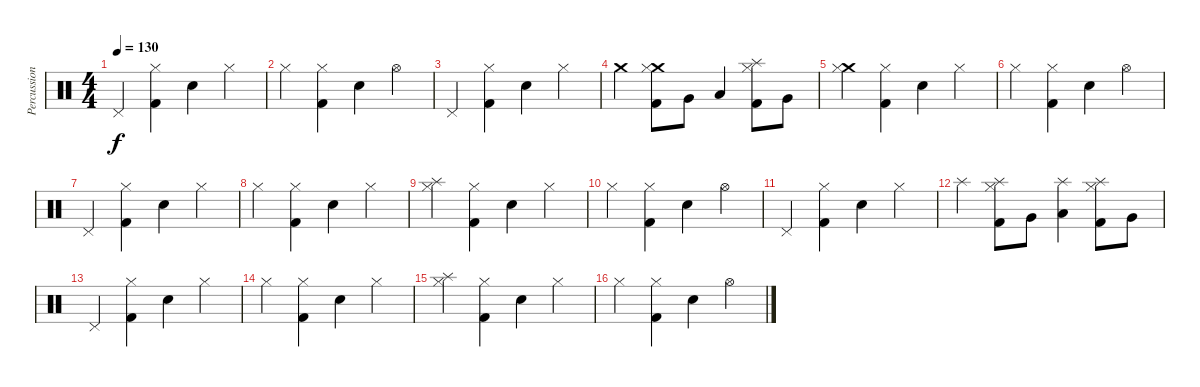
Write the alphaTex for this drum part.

\track ("Percussion" "Percussion") {instrument percussion}
\staff {score}
\articulation defaults
\ts (4 4)
\tempo 130
\clef neutral
\ks c "Pedal Hi-Hat (hit)".4{dy f}
("Hi-Hat (closed)" "Kick (hit) 2").4 "Snare (hit) 2".4 "Hi-Hat (closed)".4 |
"Hi-Hat (closed)".4 ("Hi-Hat (closed)" "Kick (hit) 2").4 "Snare (hit) 2".4 "Hi-Hat (open)".4 |
"Pedal Hi-Hat (hit)".4 ("Hi-Hat (closed)" "Kick (hit) 2").4 "Snare (hit) 2".4 "Hi-Hat (closed)".4 |
"Crash medium (hit)".4 ("Crash medium (hit)" "Hi-Hat (closed)" "Kick (hit) 2").8 "Very Low Tom (hit)".8 "Low Floor Tom (hit)".4 ("Splash (hit)" "Hi-Hat (closed)" "Kick (hit) 2").8 "Very Low Tom (hit)".8 |
("Crash medium (hit)" "Hi-Hat (closed)").4 ("Hi-Hat (closed)" "Kick (hit) 2").4 "Snare (hit) 2".4 "Hi-Hat (closed)".4 |
"Hi-Hat (closed)".4 ("Hi-Hat (closed)" "Kick (hit) 2").4 "Snare (hit) 2".4 "Hi-Hat (open)".4 |
"Pedal Hi-Hat (hit)".4 ("Hi-Hat (closed)" "Kick (hit) 2").4 "Snare (hit) 2".4 "Hi-Hat (closed)".4 |
"Hi-Hat (closed)".4 ("Hi-Hat (closed)" "Kick (hit) 2").4 "Snare (hit) 2".4 "Hi-Hat (closed)".4 |
("Splash (hit)" "Hi-Hat (closed)").4 ("Hi-Hat (closed)" "Kick (hit) 2").4 "Snare (hit) 2".4 "Hi-Hat (closed)".4 |
"Hi-Hat (closed)".4 ("Hi-Hat (closed)" "Kick (hit) 2").4 "Snare (hit) 2".4 "Hi-Hat (open)".4 |
"Pedal Hi-Hat (hit)".4 ("Hi-Hat (closed)" "Kick (hit) 2").4 "Snare (hit) 2".4 "Hi-Hat (closed)".4 |
"Splash (hit)".4 ("Splash (hit)" "Hi-Hat (closed)" "Kick (hit) 2").8 "Very Low Tom (hit)".8 ("Splash (hit)" "Low Floor Tom (hit)").4 ("Splash (hit)" "Hi-Hat (closed)" "Kick (hit) 2").8 "Very Low Tom (hit)".8 |
"Pedal Hi-Hat (hit)".4 ("Hi-Hat (closed)" "Kick (hit) 2").4 "Snare (hit) 2".4 "Hi-Hat (closed)".4 |
"Hi-Hat (closed)".4 ("Hi-Hat (closed)" "Kick (hit) 2").4 "Snare (hit) 2".4 "Hi-Hat (closed)".4 |
("Splash (hit)" "Hi-Hat (closed)").4 ("Hi-Hat (closed)" "Kick (hit) 2").4 "Snare (hit) 2".4 "Hi-Hat (closed)".4 |
"Hi-Hat (closed)".4 ("Hi-Hat (closed)" "Kick (hit) 2").4 "Snare (hit) 2".4 "Hi-Hat (open)".4
